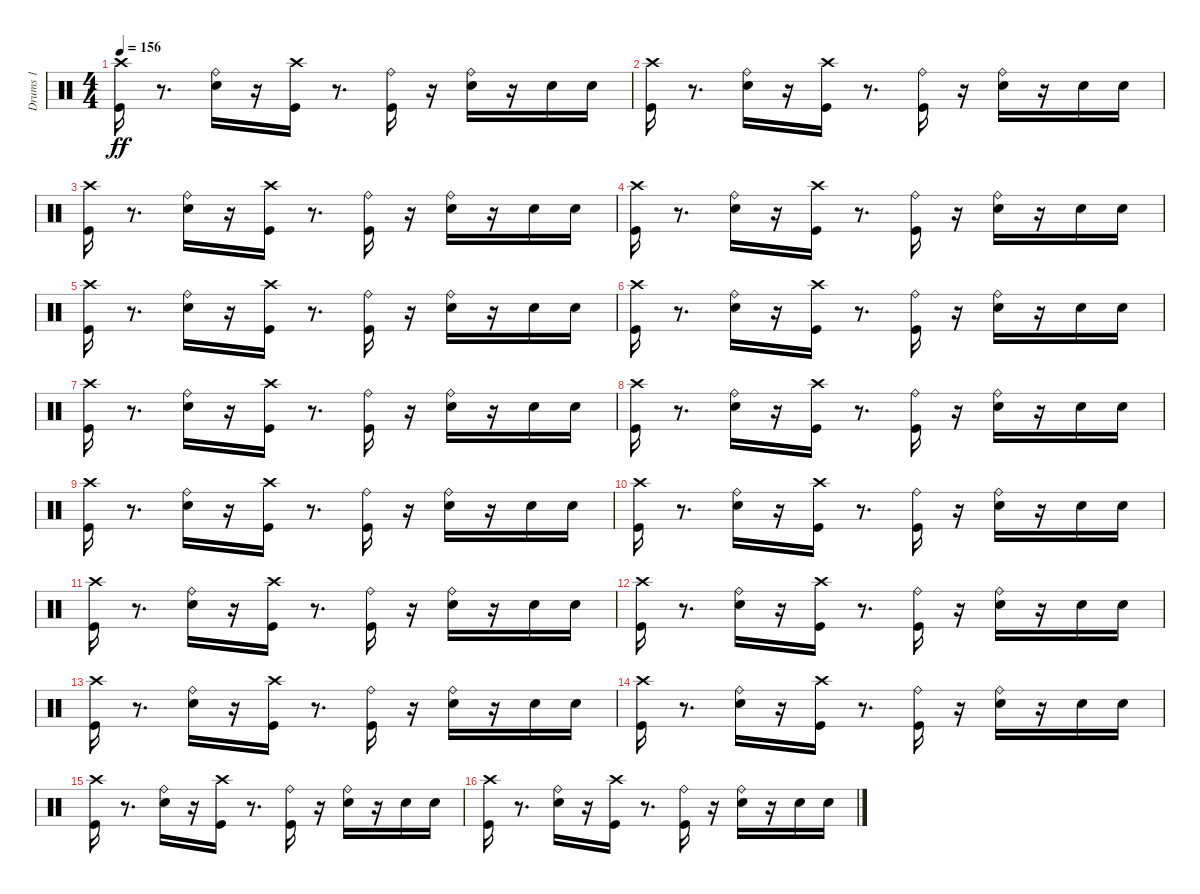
\track ("Drums 1" "Drums 1") {instrument percussion}
\staff {score}
\articulation defaults
\ts (4 4)
\tempo 156
\clef neutral
\ks c
("Kick (hit)" "Crash high (hit)").16{dy ff} r.8{d} ("Ride (bell)" "Electric Snare (hit)").16 r.16 ("Crash high (hit)" "Kick (hit)").16 r.8{d} ("Ride (bell)" "Kick (hit)").16 r.16 ("Electric Snare (hit)" "Ride (bell)").16 r.16 "Electric Snare (hit)".16 "Electric Snare (hit)".16 |
("Kick (hit)" "Crash high (hit)").16 r.8{d} ("Ride (bell)" "Electric Snare (hit)").16 r.16 ("Crash high (hit)" "Kick (hit)").16 r.8{d} ("Ride (bell)" "Kick (hit)").16 r.16 ("Electric Snare (hit)" "Ride (bell)").16 r.16 "Electric Snare (hit)".16 "Electric Snare (hit)".16 |
("Kick (hit)" "Crash high (hit)").16 r.8{d} ("Ride (bell)" "Electric Snare (hit)").16 r.16 ("Crash high (hit)" "Kick (hit)").16 r.8{d} ("Ride (bell)" "Kick (hit)").16 r.16 ("Electric Snare (hit)" "Ride (bell)").16 r.16 "Electric Snare (hit)".16 "Electric Snare (hit)".16 |
("Kick (hit)" "Crash high (hit)").16 r.8{d} ("Ride (bell)" "Electric Snare (hit)").16 r.16 ("Crash high (hit)" "Kick (hit)").16 r.8{d} ("Ride (bell)" "Kick (hit)").16 r.16 ("Electric Snare (hit)" "Ride (bell)").16 r.16 "Electric Snare (hit)".16 "Electric Snare (hit)".16 |
("Kick (hit)" "Crash high (hit)").16 r.8{d} ("Ride (bell)" "Electric Snare (hit)").16 r.16 ("Crash high (hit)" "Kick (hit)").16 r.8{d} ("Ride (bell)" "Kick (hit)").16 r.16 ("Electric Snare (hit)" "Ride (bell)").16 r.16 "Electric Snare (hit)".16 "Electric Snare (hit)".16 |
("Kick (hit)" "Crash high (hit)").16 r.8{d} ("Ride (bell)" "Electric Snare (hit)").16 r.16 ("Crash high (hit)" "Kick (hit)").16 r.8{d} ("Ride (bell)" "Kick (hit)").16 r.16 ("Electric Snare (hit)" "Ride (bell)").16 r.16 "Electric Snare (hit)".16 "Electric Snare (hit)".16 |
("Kick (hit)" "Crash high (hit)").16 r.8{d} ("Ride (bell)" "Electric Snare (hit)").16 r.16 ("Crash high (hit)" "Kick (hit)").16 r.8{d} ("Ride (bell)" "Kick (hit)").16 r.16 ("Electric Snare (hit)" "Ride (bell)").16 r.16 "Electric Snare (hit)".16 "Electric Snare (hit)".16 |
("Kick (hit)" "Crash high (hit)").16 r.8{d} ("Ride (bell)" "Electric Snare (hit)").16 r.16 ("Crash high (hit)" "Kick (hit)").16 r.8{d} ("Ride (bell)" "Kick (hit)").16 r.16 ("Electric Snare (hit)" "Ride (bell)").16 r.16 "Electric Snare (hit)".16 "Electric Snare (hit)".16 |
("Kick (hit)" "Crash high (hit)").16 r.8{d} ("Ride (bell)" "Electric Snare (hit)").16 r.16 ("Crash high (hit)" "Kick (hit)").16 r.8{d} ("Ride (bell)" "Kick (hit)").16 r.16 ("Electric Snare (hit)" "Ride (bell)").16 r.16 "Electric Snare (hit)".16 "Electric Snare (hit)".16 |
("Kick (hit)" "Crash high (hit)").16 r.8{d} ("Ride (bell)" "Electric Snare (hit)").16 r.16 ("Crash high (hit)" "Kick (hit)").16 r.8{d} ("Ride (bell)" "Kick (hit)").16 r.16 ("Electric Snare (hit)" "Ride (bell)").16 r.16 "Electric Snare (hit)".16 "Electric Snare (hit)".16 |
("Kick (hit)" "Crash high (hit)").16 r.8{d} ("Ride (bell)" "Electric Snare (hit)").16 r.16 ("Crash high (hit)" "Kick (hit)").16 r.8{d} ("Ride (bell)" "Kick (hit)").16 r.16 ("Electric Snare (hit)" "Ride (bell)").16 r.16 "Electric Snare (hit)".16 "Electric Snare (hit)".16 |
("Kick (hit)" "Crash high (hit)").16 r.8{d} ("Ride (bell)" "Electric Snare (hit)").16 r.16 ("Crash high (hit)" "Kick (hit)").16 r.8{d} ("Ride (bell)" "Kick (hit)").16 r.16 ("Electric Snare (hit)" "Ride (bell)").16 r.16 "Electric Snare (hit)".16 "Electric Snare (hit)".16 |
("Kick (hit)" "Crash high (hit)").16 r.8{d} ("Ride (bell)" "Electric Snare (hit)").16 r.16 ("Crash high (hit)" "Kick (hit)").16 r.8{d} ("Ride (bell)" "Kick (hit)").16 r.16 ("Electric Snare (hit)" "Ride (bell)").16 r.16 "Electric Snare (hit)".16 "Electric Snare (hit)".16 |
("Kick (hit)" "Crash high (hit)").16 r.8{d} ("Ride (bell)" "Electric Snare (hit)").16 r.16 ("Crash high (hit)" "Kick (hit)").16 r.8{d} ("Ride (bell)" "Kick (hit)").16 r.16 ("Electric Snare (hit)" "Ride (bell)").16 r.16 "Electric Snare (hit)".16 "Electric Snare (hit)".16 |
("Kick (hit)" "Crash high (hit)").16 r.8{d} ("Ride (bell)" "Electric Snare (hit)").16 r.16 ("Crash high (hit)" "Kick (hit)").16 r.8{d} ("Ride (bell)" "Kick (hit)").16 r.16 ("Electric Snare (hit)" "Ride (bell)").16 r.16 "Electric Snare (hit)".16 "Electric Snare (hit)".16 |
("Kick (hit)" "Crash high (hit)").16 r.8{d} ("Ride (bell)" "Electric Snare (hit)").16 r.16 ("Crash high (hit)" "Kick (hit)").16 r.8{d} ("Ride (bell)" "Kick (hit)").16 r.16 ("Electric Snare (hit)" "Ride (bell)").16 r.16 "Electric Snare (hit)".16 "Electric Snare (hit)".16
